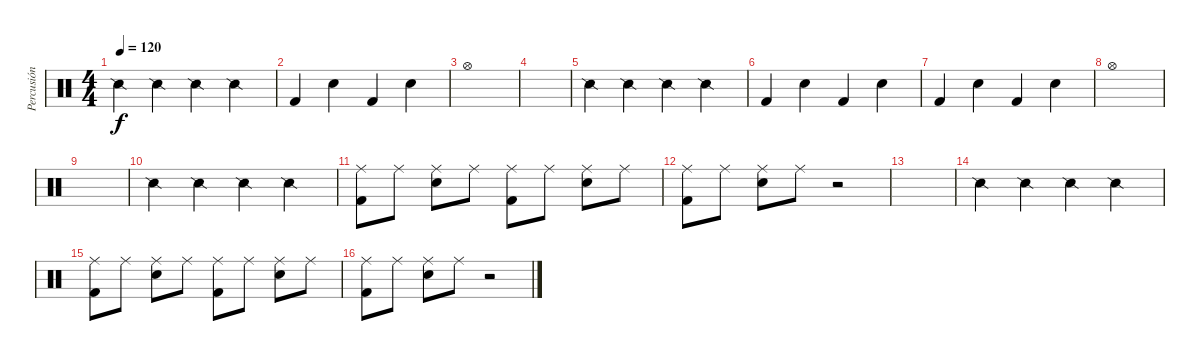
\track ("Percusión" "Percusión") {instrument percussion}
\staff {score}
\articulation defaults
\ts (4 4)
\tempo 120
\clef neutral
\ks c "Snare (side stick) 2".4{dy f} "Snare (side stick) 2".4 "Snare (side stick) 2".4 "Snare (side stick) 2".4
|
"Kick (hit) 2".4 "Snare (hit) 2".4 "Kick (hit) 2".4 "Snare (hit) 2".4 |
"Hi-Hat (open)".1 |
|
"Snare (side stick) 2".4 "Snare (side stick) 2".4 "Snare (side stick) 2".4 "Snare (side stick) 2".4 |
"Kick (hit) 2".4 "Snare (hit) 2".4 "Kick (hit) 2".4 "Snare (hit) 2".4 |
"Kick (hit) 2".4 "Snare (hit) 2".4 "Kick (hit) 2".4 "Snare (hit) 2".4 |
"Hi-Hat (open)".1 |
|
"Snare (side stick) 2".4 "Snare (side stick) 2".4 "Snare (side stick) 2".4 "Snare (side stick) 2".4 |
("Kick (hit) 2" "Ride (middle)").8 "Ride (middle)".8 ("Snare (hit) 2" "Ride (middle)").8 "Ride (middle)".8 ("Kick (hit) 2" "Ride (middle)").8 "Ride (middle)".8 ("Snare (hit) 2" "Ride (middle)").8 "Ride (middle)".8 |
("Kick (hit) 2" "Ride (middle)").8 "Ride (middle)".8 ("Snare (hit) 2" "Ride (middle)").8 "Ride (middle)".8 r.2 |
|
"Snare (side stick) 2".4 "Snare (side stick) 2".4 "Snare (side stick) 2".4 "Snare (side stick) 2".4 |
("Kick (hit) 2" "Ride (middle)").8 "Ride (middle)".8 ("Snare (hit) 2" "Ride (middle)").8 "Ride (middle)".8 ("Kick (hit) 2" "Ride (middle)").8 "Ride (middle)".8 ("Snare (hit) 2" "Ride (middle)").8 "Ride (middle)".8 |
("Kick (hit) 2" "Ride (middle)").8 "Ride (middle)".8 ("Snare (hit) 2" "Ride (middle)").8 "Ride (middle)".8 r.2
